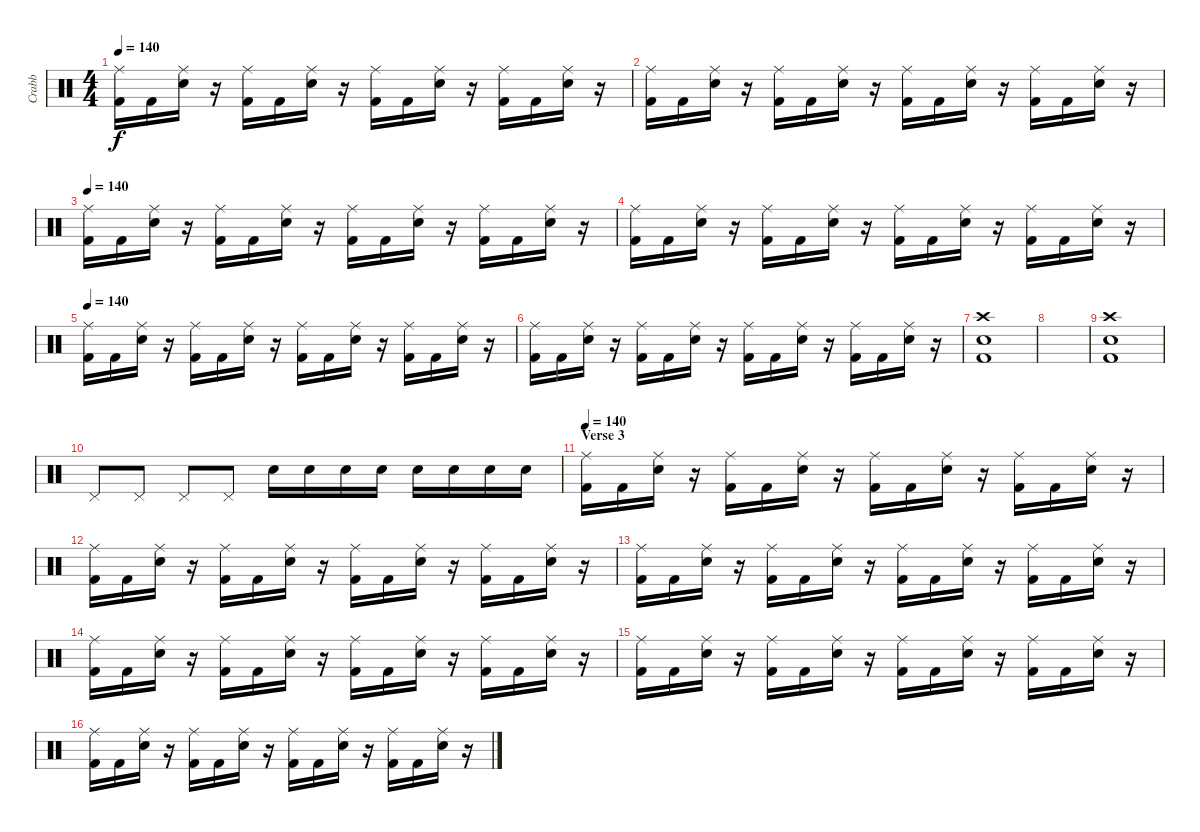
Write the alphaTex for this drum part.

\track ("Crabb" "Crabb") {instrument percussion}
\staff {score}
\articulation defaults
\ts (4 4)
\tempo 140
\clef neutral
\ks c
("Ride (middle)" "Kick (hit) 2").16{dy f} "Kick (hit) 2".16 ("Ride (middle)" "Electric Snare (hit)").16 r.16 ("Ride (middle)" "Kick (hit) 2").16 "Kick (hit) 2".16 ("Ride (middle)" "Electric Snare (hit)").16 r.16 ("Ride (middle)" "Kick (hit) 2").16 "Kick (hit) 2".16 ("Ride (middle)" "Electric Snare (hit)").16 r.16 ("Ride (middle)" "Kick (hit) 2").16 "Kick (hit) 2".16 ("Ride (middle)" "Electric Snare (hit)").16 r.16 |
("Ride (middle)" "Kick (hit) 2").16 "Kick (hit) 2".16 ("Ride (middle)" "Electric Snare (hit)").16 r.16 ("Ride (middle)" "Kick (hit) 2").16 "Kick (hit) 2".16 ("Ride (middle)" "Electric Snare (hit)").16 r.16 ("Ride (middle)" "Kick (hit) 2").16 "Kick (hit) 2".16 ("Ride (middle)" "Electric Snare (hit)").16 r.16 ("Ride (middle)" "Kick (hit) 2").16 "Kick (hit) 2".16 ("Ride (middle)" "Electric Snare (hit)").16 r.16 |
\tempo 140
("Ride (middle)" "Kick (hit) 2").16 "Kick (hit) 2".16 ("Ride (middle)" "Electric Snare (hit)").16 r.16 ("Ride (middle)" "Kick (hit) 2").16 "Kick (hit) 2".16 ("Ride (middle)" "Electric Snare (hit)").16 r.16 ("Ride (middle)" "Kick (hit) 2").16 "Kick (hit) 2".16 ("Ride (middle)" "Electric Snare (hit)").16 r.16 ("Ride (middle)" "Kick (hit) 2").16 "Kick (hit) 2".16 ("Ride (middle)" "Electric Snare (hit)").16 r.16 |
("Ride (middle)" "Kick (hit) 2").16 "Kick (hit) 2".16 ("Ride (middle)" "Electric Snare (hit)").16 r.16 ("Ride (middle)" "Kick (hit) 2").16 "Kick (hit) 2".16 ("Ride (middle)" "Electric Snare (hit)").16 r.16 ("Ride (middle)" "Kick (hit) 2").16 "Kick (hit) 2".16 ("Ride (middle)" "Electric Snare (hit)").16 r.16 ("Ride (middle)" "Kick (hit) 2").16 "Kick (hit) 2".16 ("Ride (middle)" "Electric Snare (hit)").16 r.16 |
\tempo 140
("Ride (middle)" "Kick (hit) 2").16 "Kick (hit) 2".16 ("Ride (middle)" "Electric Snare (hit)").16 r.16 ("Ride (middle)" "Kick (hit) 2").16 "Kick (hit) 2".16 ("Ride (middle)" "Electric Snare (hit)").16 r.16 ("Ride (middle)" "Kick (hit) 2").16 "Kick (hit) 2".16 ("Ride (middle)" "Electric Snare (hit)").16 r.16 ("Ride (middle)" "Kick (hit) 2").16 "Kick (hit) 2".16 ("Ride (middle)" "Electric Snare (hit)").16 r.16 |
("Ride (middle)" "Kick (hit) 2").16 "Kick (hit) 2".16 ("Ride (middle)" "Electric Snare (hit)").16 r.16 ("Ride (middle)" "Kick (hit) 2").16 "Kick (hit) 2".16 ("Ride (middle)" "Electric Snare (hit)").16 r.16 ("Ride (middle)" "Kick (hit) 2").16 "Kick (hit) 2".16 ("Ride (middle)" "Electric Snare (hit)").16 r.16 ("Ride (middle)" "Kick (hit) 2").16 "Kick (hit) 2".16 ("Ride (middle)" "Electric Snare (hit)").16 r.16 |
("Crash high (hit)" "Electric Snare (hit)" "Kick (hit) 2").1 |
|
("Crash high (hit)" "Electric Snare (hit)" "Kick (hit) 2").1 |
"Pedal Hi-Hat (hit)".8 "Pedal Hi-Hat (hit)".8 "Pedal Hi-Hat (hit)".8 "Pedal Hi-Hat (hit)".8 "Electric Snare (hit)".16 "Electric Snare (hit)".16 "Electric Snare (hit)".16 "Electric Snare (hit)".16 "Electric Snare (hit)".16 "Electric Snare (hit)".16 "Electric Snare (hit)".16 "Electric Snare (hit)".16 |
\section ("" "Verse 3")
\tempo 140
("Ride (middle)" "Kick (hit) 2").16 "Kick (hit) 2".16 ("Ride (middle)" "Electric Snare (hit)").16 r.16 ("Ride (middle)" "Kick (hit) 2").16 "Kick (hit) 2".16 ("Ride (middle)" "Electric Snare (hit)").16 r.16 ("Ride (middle)" "Kick (hit) 2").16 "Kick (hit) 2".16 ("Ride (middle)" "Electric Snare (hit)").16 r.16 ("Ride (middle)" "Kick (hit) 2").16 "Kick (hit) 2".16 ("Ride (middle)" "Electric Snare (hit)").16 r.16 |
("Ride (middle)" "Kick (hit) 2").16 "Kick (hit) 2".16 ("Ride (middle)" "Electric Snare (hit)").16 r.16 ("Ride (middle)" "Kick (hit) 2").16 "Kick (hit) 2".16 ("Ride (middle)" "Electric Snare (hit)").16 r.16 ("Ride (middle)" "Kick (hit) 2").16 "Kick (hit) 2".16 ("Ride (middle)" "Electric Snare (hit)").16 r.16 ("Ride (middle)" "Kick (hit) 2").16 "Kick (hit) 2".16 ("Ride (middle)" "Electric Snare (hit)").16 r.16 |
("Ride (middle)" "Kick (hit) 2").16 "Kick (hit) 2".16 ("Ride (middle)" "Electric Snare (hit)").16 r.16 ("Ride (middle)" "Kick (hit) 2").16 "Kick (hit) 2".16 ("Ride (middle)" "Electric Snare (hit)").16 r.16 ("Ride (middle)" "Kick (hit) 2").16 "Kick (hit) 2".16 ("Ride (middle)" "Electric Snare (hit)").16 r.16 ("Ride (middle)" "Kick (hit) 2").16 "Kick (hit) 2".16 ("Ride (middle)" "Electric Snare (hit)").16 r.16 |
("Ride (middle)" "Kick (hit) 2").16 "Kick (hit) 2".16 ("Ride (middle)" "Electric Snare (hit)").16 r.16 ("Ride (middle)" "Kick (hit) 2").16 "Kick (hit) 2".16 ("Ride (middle)" "Electric Snare (hit)").16 r.16 ("Ride (middle)" "Kick (hit) 2").16 "Kick (hit) 2".16 ("Ride (middle)" "Electric Snare (hit)").16 r.16 ("Ride (middle)" "Kick (hit) 2").16 "Kick (hit) 2".16 ("Ride (middle)" "Electric Snare (hit)").16 r.16 |
("Ride (middle)" "Kick (hit) 2").16 "Kick (hit) 2".16 ("Ride (middle)" "Electric Snare (hit)").16 r.16 ("Ride (middle)" "Kick (hit) 2").16 "Kick (hit) 2".16 ("Ride (middle)" "Electric Snare (hit)").16 r.16 ("Ride (middle)" "Kick (hit) 2").16 "Kick (hit) 2".16 ("Ride (middle)" "Electric Snare (hit)").16 r.16 ("Ride (middle)" "Kick (hit) 2").16 "Kick (hit) 2".16 ("Ride (middle)" "Electric Snare (hit)").16 r.16 |
("Ride (middle)" "Kick (hit) 2").16 "Kick (hit) 2".16 ("Ride (middle)" "Electric Snare (hit)").16 r.16 ("Ride (middle)" "Kick (hit) 2").16 "Kick (hit) 2".16 ("Ride (middle)" "Electric Snare (hit)").16 r.16 ("Ride (middle)" "Kick (hit) 2").16 "Kick (hit) 2".16 ("Ride (middle)" "Electric Snare (hit)").16 r.16 ("Ride (middle)" "Kick (hit) 2").16 "Kick (hit) 2".16 ("Ride (middle)" "Electric Snare (hit)").16 r.16
